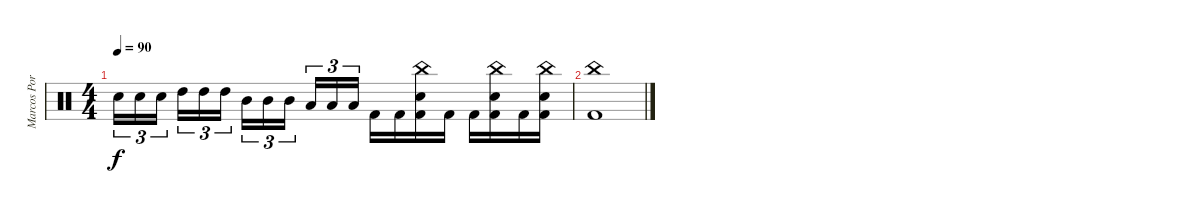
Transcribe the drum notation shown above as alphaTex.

\track ("Marcos Portinol" "Marcos Por") {instrument percussion}
\staff {score}
\articulation defaults
\ts (4 4)
\tempo 90
\clef neutral
\ks c "Electric Snare (hit)".16{tu (3 2) dy f} "Electric Snare (hit)".16{tu (3 2)} "Electric Snare (hit)".16{tu (3 2)} "High Tom (hit)".16{tu (3 2)} "High Tom (hit)".16{tu (3 2)} "High Tom (hit)".16{tu (3 2)} "Mid Tom (hit)".16{tu (3 2)} "Mid Tom (hit)".16{tu (3 2)} "Mid Tom (hit)".16{tu (3 2)} "Low Tom (hit)".16{tu (3 2)} "Low Tom (hit)".16{tu (3 2)} "Low Tom (hit)".16{tu (3 2)} "Kick (hit) 2".16 "Kick (hit) 2".16
("Kick (hit) 2" "Electric Snare (hit)" "China (hit)").16 "Kick (hit) 2".16 "Kick (hit) 2".16 ("Kick (hit) 2" "Electric Snare (hit)" "China (hit)").16 "Kick (hit) 2".16 ("Kick (hit) 2" "Electric Snare (hit)" "China (hit)").16 |
("Kick (hit) 2" "China (hit)").1
